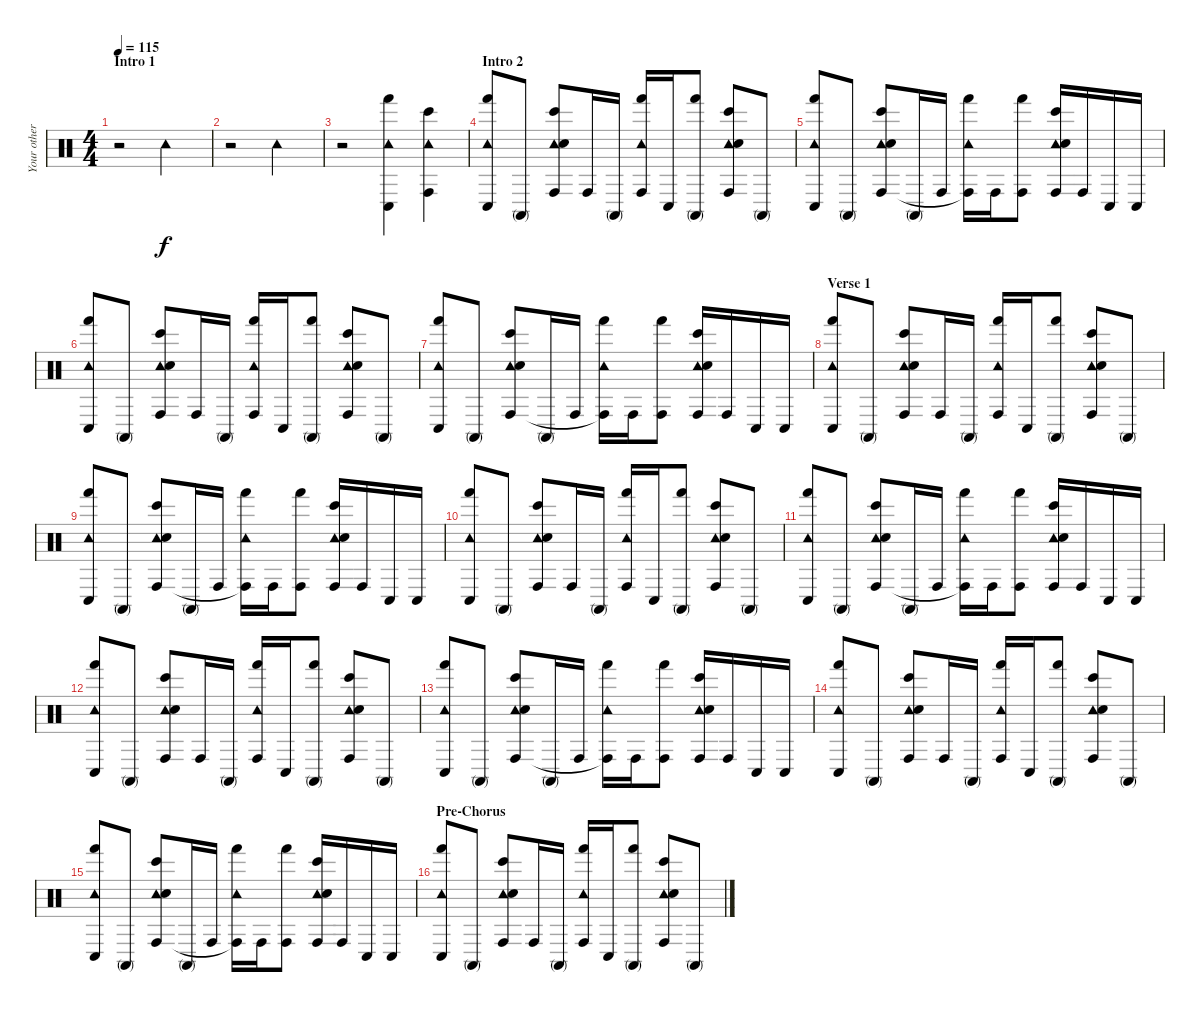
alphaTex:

\track ("Your other Friends giving you the Beat" "Your other") {instrument percussion}
\staff {score}
\articulation defaults
\ts (4 4)
\section ("" "Intro 1")
\tempo 115
\clef neutral
\ks c
r.2{dy f} "Tambourine (hit)".2 |
r.2 "Tambourine (hit)".2 |
r.2 ("Tambourine (hit)" "Conga low (hit)" "Hand (hit)").4 ("Tambourine (hit)" "Conga high (hit)" "Bongo High (hit)").4 |
\section ("" "Intro 2")
("Tambourine (hit)" "Conga low (hit)" "Hand (hit)").8 "Conga high (mute)".8 ("Tambourine (hit)" "Conga high (hit)" "Hand Clap (hit)" "Bongo High (hit)").8 "Conga high (hit)".16 "Conga high (mute)".16 ("Tambourine (hit)" "Conga high (hit)" "Hand (hit)").16 "Conga low (hit)".16 ("Conga high (mute)" "Hand (hit)").8 ("Tambourine (hit)" "Conga high (hit)" "Hand Clap (hit)" "Bongo High (hit)").8 "Conga high (mute)".8 |
("Tambourine (hit)" "Conga low (hit)" "Hand (hit)").8 "Conga high (mute)".8 ("Tambourine (hit)" "Conga high (hit)" "Hand Clap (hit)" "Bongo High (hit)").8 "Conga high (mute)".16 "Conga high (hit)".16 ("Tambourine (hit)" "Conga high (hit)"{t} "Hand (hit)").16 "Conga high (hit)".16 ("Conga high (hit)" "Hand (hit)").8 ("Tambourine (hit)" "Conga high (hit)" "Hand Clap (hit)" "Bongo High (hit)").16 "Conga high (hit)".16 "Conga low (hit)".16 "Conga low (hit)".16 |
("Tambourine (hit)" "Conga low (hit)" "Hand (hit)").8 "Conga high (mute)".8 ("Tambourine (hit)" "Conga high (hit)" "Hand Clap (hit)" "Bongo High (hit)").8 "Conga high (hit)".16 "Conga high (mute)".16 ("Tambourine (hit)" "Conga high (hit)" "Hand (hit)").16 "Conga low (hit)".16 ("Conga high (mute)" "Hand (hit)").8 ("Tambourine (hit)" "Conga high (hit)" "Hand Clap (hit)" "Bongo High (hit)").8 "Conga high (mute)".8 |
("Tambourine (hit)" "Conga low (hit)" "Hand (hit)").8 "Conga high (mute)".8 ("Tambourine (hit)" "Conga high (hit)" "Hand Clap (hit)" "Bongo High (hit)").8 "Conga high (mute)".16 "Conga high (hit)".16 ("Tambourine (hit)" "Conga high (hit)"{t} "Hand (hit)").16 "Conga high (hit)".16 ("Conga high (hit)" "Hand (hit)").8 ("Tambourine (hit)" "Conga high (hit)" "Hand Clap (hit)" "Bongo High (hit)").16 "Conga high (hit)".16 "Conga low (hit)".16 "Conga low (hit)".16 |
\section ("" "Verse 1")
("Tambourine (hit)" "Conga low (hit)" "Hand (hit)").8 "Conga high (mute)".8 ("Tambourine (hit)" "Conga high (hit)" "Hand Clap (hit)" "Bongo High (hit)").8 "Conga high (hit)".16 "Conga high (mute)".16 ("Tambourine (hit)" "Conga high (hit)" "Hand (hit)").16 "Conga low (hit)".16 ("Conga high (mute)" "Hand (hit)").8 ("Tambourine (hit)" "Conga high (hit)" "Hand Clap (hit)" "Bongo High (hit)").8 "Conga high (mute)".8 |
("Tambourine (hit)" "Conga low (hit)" "Hand (hit)").8 "Conga high (mute)".8 ("Tambourine (hit)" "Conga high (hit)" "Hand Clap (hit)" "Bongo High (hit)").8 "Conga high (mute)".16 "Conga high (hit)".16 ("Tambourine (hit)" "Conga high (hit)"{t} "Hand (hit)").16 "Conga high (hit)".16 ("Conga high (hit)" "Hand (hit)").8 ("Tambourine (hit)" "Conga high (hit)" "Hand Clap (hit)" "Bongo High (hit)").16 "Conga high (hit)".16 "Conga low (hit)".16 "Conga low (hit)".16 |
("Tambourine (hit)" "Conga low (hit)" "Hand (hit)").8 "Conga high (mute)".8 ("Tambourine (hit)" "Conga high (hit)" "Hand Clap (hit)" "Bongo High (hit)").8 "Conga high (hit)".16 "Conga high (mute)".16 ("Tambourine (hit)" "Conga high (hit)" "Hand (hit)").16 "Conga low (hit)".16 ("Conga high (mute)" "Hand (hit)").8 ("Tambourine (hit)" "Conga high (hit)" "Hand Clap (hit)" "Bongo High (hit)").8 "Conga high (mute)".8 |
("Tambourine (hit)" "Conga low (hit)" "Hand (hit)").8 "Conga high (mute)".8 ("Tambourine (hit)" "Conga high (hit)" "Hand Clap (hit)" "Bongo High (hit)").8 "Conga high (mute)".16 "Conga high (hit)".16 ("Tambourine (hit)" "Conga high (hit)"{t} "Hand (hit)").16 "Conga high (hit)".16 ("Conga high (hit)" "Hand (hit)").8 ("Tambourine (hit)" "Conga high (hit)" "Hand Clap (hit)" "Bongo High (hit)").16 "Conga high (hit)".16 "Conga low (hit)".16 "Conga low (hit)".16 |
("Tambourine (hit)" "Conga low (hit)" "Hand (hit)").8 "Conga high (mute)".8 ("Tambourine (hit)" "Conga high (hit)" "Hand Clap (hit)" "Bongo High (hit)").8 "Conga high (hit)".16 "Conga high (mute)".16 ("Tambourine (hit)" "Conga high (hit)" "Hand (hit)").16 "Conga low (hit)".16 ("Conga high (mute)" "Hand (hit)").8 ("Tambourine (hit)" "Conga high (hit)" "Hand Clap (hit)" "Bongo High (hit)").8 "Conga high (mute)".8 |
("Tambourine (hit)" "Conga low (hit)" "Hand (hit)").8 "Conga high (mute)".8 ("Tambourine (hit)" "Conga high (hit)" "Hand Clap (hit)" "Bongo High (hit)").8 "Conga high (mute)".16 "Conga high (hit)".16 ("Tambourine (hit)" "Conga high (hit)"{t} "Hand (hit)").16 "Conga high (hit)".16 ("Conga high (hit)" "Hand (hit)").8 ("Tambourine (hit)" "Conga high (hit)" "Hand Clap (hit)" "Bongo High (hit)").16 "Conga high (hit)".16 "Conga low (hit)".16 "Conga low (hit)".16 |
("Tambourine (hit)" "Conga low (hit)" "Hand (hit)").8 "Conga high (mute)".8 ("Tambourine (hit)" "Conga high (hit)" "Hand Clap (hit)" "Bongo High (hit)").8 "Conga high (hit)".16 "Conga high (mute)".16 ("Tambourine (hit)" "Conga high (hit)" "Hand (hit)").16 "Conga low (hit)".16 ("Conga high (mute)" "Hand (hit)").8 ("Tambourine (hit)" "Conga high (hit)" "Hand Clap (hit)" "Bongo High (hit)").8 "Conga high (mute)".8 |
("Tambourine (hit)" "Conga low (hit)" "Hand (hit)").8 "Conga high (mute)".8 ("Tambourine (hit)" "Conga high (hit)" "Hand Clap (hit)" "Bongo High (hit)").8 "Conga high (mute)".16 "Conga high (hit)".16 ("Tambourine (hit)" "Conga high (hit)"{t} "Hand (hit)").16 "Conga high (hit)".16 ("Conga high (hit)" "Hand (hit)").8 ("Tambourine (hit)" "Conga high (hit)" "Hand Clap (hit)" "Bongo High (hit)").16 "Conga high (hit)".16 "Conga low (hit)".16 "Conga low (hit)".16 |
\section ("" "Pre-Chorus")
("Tambourine (hit)" "Conga low (hit)" "Hand (hit)").8 "Conga high (mute)".8 ("Tambourine (hit)" "Conga high (hit)" "Hand Clap (hit)" "Bongo High (hit)").8 "Conga high (hit)".16 "Conga high (mute)".16 ("Tambourine (hit)" "Conga high (hit)" "Hand (hit)").16 "Conga low (hit)".16 ("Conga high (mute)" "Hand (hit)").8 ("Tambourine (hit)" "Conga high (hit)" "Hand Clap (hit)" "Bongo High (hit)").8 "Conga high (mute)".8
